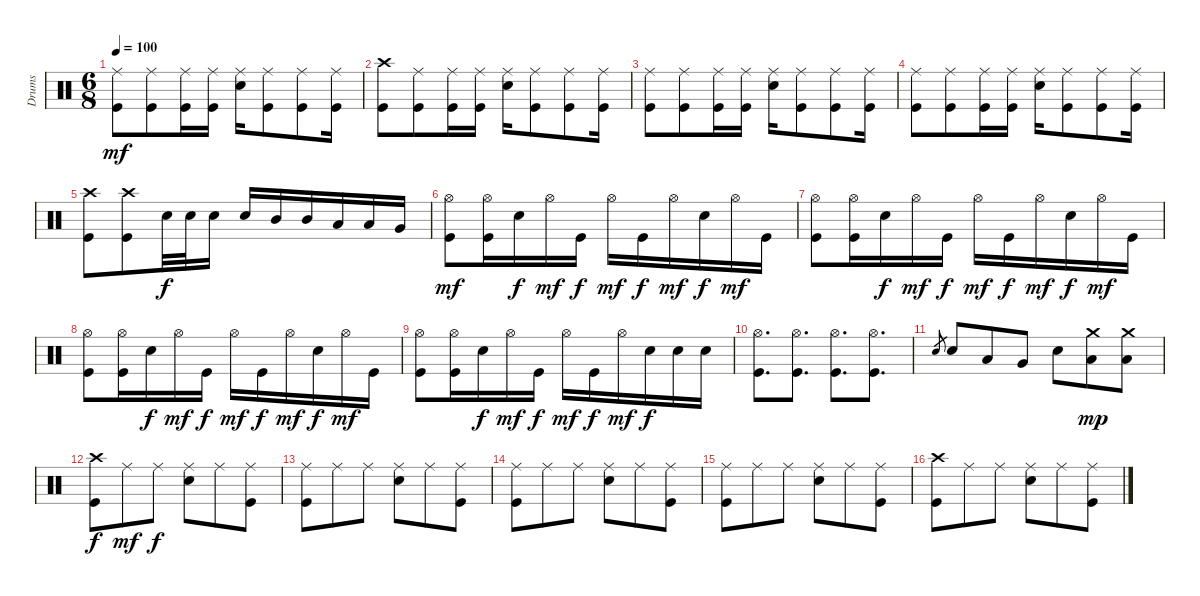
\track ("Drums" "Drums") {instrument percussion}
\staff {score}
\articulation defaults
\ts (6 8)
\tempo 100
\clef neutral
\ks c
("Ride (middle)" "Kick (hit)").8{dy mf} ("Ride (middle)" "Kick (hit)").8 ("Ride (middle)" "Kick (hit)").16 ("Ride (middle)" "Kick (hit)").16 ("Ride (middle)" "Electric Snare (hit)").16 ("Ride (middle)" "Kick (hit)").8 ("Ride (middle)" "Kick (hit)").8 ("Ride (middle)" "Kick (hit)").16 |
("Crash high (hit)" "Kick (hit)").8 ("Ride (middle)" "Kick (hit)").8 ("Ride (middle)" "Kick (hit)").16 ("Ride (middle)" "Kick (hit)").16 ("Ride (middle)" "Electric Snare (hit)").16 ("Ride (middle)" "Kick (hit)").8 ("Ride (middle)" "Kick (hit)").8 ("Ride (middle)" "Kick (hit)").16 |
("Ride (middle)" "Kick (hit)").8 ("Ride (middle)" "Kick (hit)").8 ("Ride (middle)" "Kick (hit)").16 ("Ride (middle)" "Kick (hit)").16 ("Ride (middle)" "Electric Snare (hit)").16 ("Ride (middle)" "Kick (hit)").8 ("Ride (middle)" "Kick (hit)").8 ("Ride (middle)" "Kick (hit)").16 |
("Ride (middle)" "Kick (hit)").8 ("Ride (middle)" "Kick (hit)").8 ("Ride (middle)" "Kick (hit)").16 ("Ride (middle)" "Kick (hit)").16 ("Ride (middle)" "Electric Snare (hit)").16 ("Ride (middle)" "Kick (hit)").8 ("Ride (middle)" "Kick (hit)").8 ("Ride (middle)" "Kick (hit)").16 |
("Crash high (hit)" "Kick (hit)").8 ("Crash high (hit)" "Kick (hit)").8 "Electric Snare (hit)".32{dy f} "Electric Snare (hit)".32 "Electric Snare (hit)".16 "Electric Snare (hit)".16 "Mid Tom (hit)".16 "Mid Tom (hit)".16 "Low Tom (hit)".16 "Low Tom (hit)".16 "Very Low Tom (hit)".16 |
("Hi-Hat (open)" "Kick (hit)").8{dy mf} ("Hi-Hat (open)" "Kick (hit)").16 "Electric Snare (hit)".16{dy f} "Hi-Hat (open)".16{dy mf} "Kick (hit)".16{dy f} "Hi-Hat (open)".16{dy mf} "Kick (hit)".16{dy f} "Hi-Hat (open)".16{dy mf} "Electric Snare (hit)".16{dy f} "Hi-Hat (open)".16{dy mf} "Kick (hit)".16 |
("Hi-Hat (open)" "Kick (hit)").8 ("Hi-Hat (open)" "Kick (hit)").16 "Electric Snare (hit)".16{dy f} "Hi-Hat (open)".16{dy mf} "Kick (hit)".16{dy f} "Hi-Hat (open)".16{dy mf} "Kick (hit)".16{dy f} "Hi-Hat (open)".16{dy mf} "Electric Snare (hit)".16{dy f} "Hi-Hat (open)".16{dy mf} "Kick (hit)".16 |
("Hi-Hat (open)" "Kick (hit)").8 ("Hi-Hat (open)" "Kick (hit)").16 "Electric Snare (hit)".16{dy f} "Hi-Hat (open)".16{dy mf} "Kick (hit)".16{dy f} "Hi-Hat (open)".16{dy mf} "Kick (hit)".16{dy f} "Hi-Hat (open)".16{dy mf} "Electric Snare (hit)".16{dy f} "Hi-Hat (open)".16{dy mf} "Kick (hit)".16 |
("Hi-Hat (open)" "Kick (hit)").8 ("Hi-Hat (open)" "Kick (hit)").16 "Electric Snare (hit)".16{dy f} "Hi-Hat (open)".16{dy mf} "Kick (hit)".16{dy f} "Hi-Hat (open)".16{dy mf} "Kick (hit)".16{dy f} "Hi-Hat (open)".16{dy mf} "Electric Snare (hit)".16{dy f} "Electric Snare (hit)".16 "Electric Snare (hit)".16 |
("Hi-Hat (open)" "Kick (hit)").8{d} ("Hi-Hat (open)" "Kick (hit)").8{d} ("Hi-Hat (open)" "Kick (hit)").8{d} ("Hi-Hat (open)" "Kick (hit)").8{d} |
"Electric Snare (hit)".8{gr} "Electric Snare (hit)".8 "Low Tom (hit)".8 "Very Low Tom (hit)".8 "Electric Snare (hit)".8 ("Crash medium (hit)" "Low Floor Tom (hit)").8{dy mp} ("Crash medium (hit)" "Low Floor Tom (hit)").8 |
("Crash high (hit)" "Kick (hit)").8{dy f} "Ride (middle)".8{dy mf} "Ride (middle)".8{dy f} ("Ride (middle)" "Electric Snare (hit)").8 "Ride (middle)".8 ("Ride (middle)" "Kick (hit)").8 |
("Ride (middle)" "Kick (hit)").8 "Ride (middle)".8 "Ride (middle)".8 ("Ride (middle)" "Electric Snare (hit)").8 "Ride (middle)".8 ("Ride (middle)" "Kick (hit)").8 |
("Ride (middle)" "Kick (hit)").8 "Ride (middle)".8 "Ride (middle)".8 ("Ride (middle)" "Electric Snare (hit)").8 "Ride (middle)".8 ("Ride (middle)" "Kick (hit)").8 |
("Ride (middle)" "Kick (hit)").8 "Ride (middle)".8 "Ride (middle)".8 ("Ride (middle)" "Electric Snare (hit)").8 "Ride (middle)".8 ("Ride (middle)" "Kick (hit)").8 |
("Crash high (hit)" "Kick (hit)").8 "Ride (middle)".8 "Ride (middle)".8 ("Ride (middle)" "Electric Snare (hit)").8 "Ride (middle)".8 ("Ride (middle)" "Kick (hit)").8
